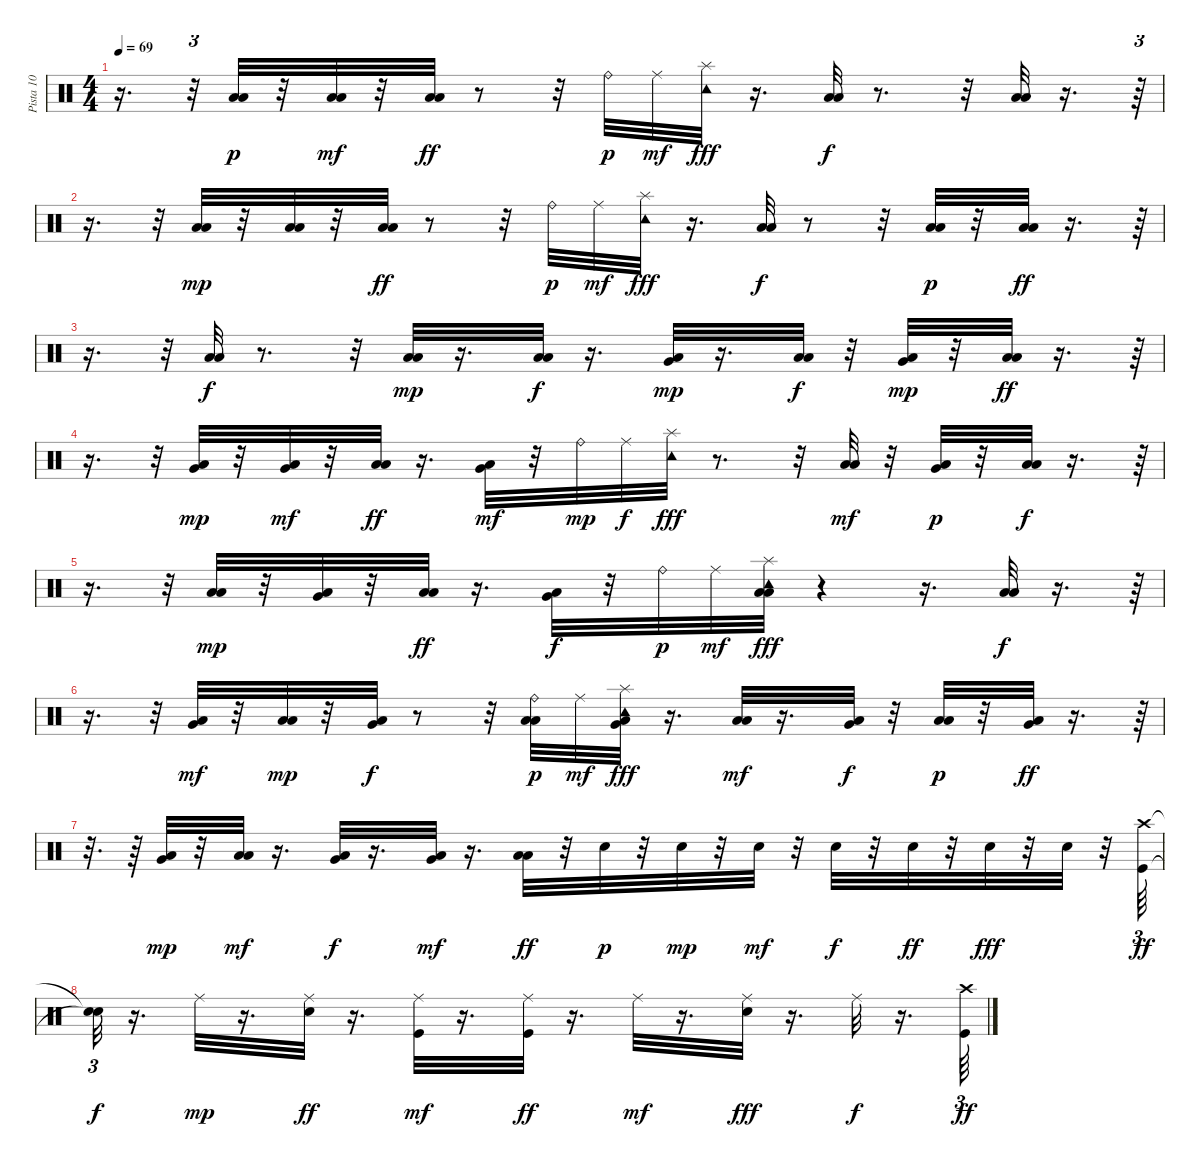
\track ("Pista 10" "Pista 10") {instrument percussion}
\staff {score}
\articulation defaults
\ts (4 4)
\tempo 69
\clef neutral
\ks c
r.16{d dy f} r.32{tu (3 2)} ("Low Floor Tom (hit)" "Low Tom (hit)").32{dy p} r.32 ("Low Floor Tom (hit)" "Low Tom (hit)").32{dy mf} r.32 ("Low Tom (hit)" "Low Floor Tom (hit)").32{dy ff} r.8 r.32 "Ride (bell)".32{dy p} "Ride (middle)".32{dy mf} ("Splash (hit)" "Tambourine (hit)").32{dy fff} r.16{d} ("Low Floor Tom (hit)" "Low Tom (hit)").32{dy f} r.8{d} r.32 ("Low Tom (hit)" "Low Floor Tom (hit)").32 r.16{d} r.64{tu (3 2)} |
r.16{d} r.32{tu (3 2)} ("Low Floor Tom (hit)" "Low Tom (hit)").32{dy mp} r.32 ("Low Floor Tom (hit)" "Low Tom (hit)").32 r.32 ("Low Tom (hit)" "Low Floor Tom (hit)").32{dy ff} r.8 r.32 "Ride (bell)".32{dy p} "Ride (middle)".32{dy mf} ("Splash (hit)" "Tambourine (hit)").32{dy fff} r.16{d} ("Low Floor Tom (hit)" "Low Tom (hit)").32{dy f} r.8 r.32 ("Low Tom (hit)" "Low Floor Tom (hit)").32{dy p} r.32 ("Low Tom (hit)" "Low Floor Tom (hit)").32{dy ff} r.16{d} r.64{tu (3 2)} |
r.16{d} r.32{tu (3 2)} ("Low Tom (hit)" "Low Floor Tom (hit)").32{dy f} r.8{d} r.32 ("Low Floor Tom (hit)" "Low Tom (hit)").32{dy mp} r.16{d} ("Low Floor Tom (hit)" "Low Tom (hit)").32{dy f} r.16{d} ("Very Low Tom (hit)" "Low Floor Tom (hit)").32{dy mp} r.16{d} ("Low Floor Tom (hit)" "Low Tom (hit)").32{dy f} r.32 ("Very Low Tom (hit)" "Low Floor Tom (hit)").32{dy mp} r.32 ("Low Tom (hit)" "Low Floor Tom (hit)").32{dy ff} r.16{d} r.64{tu (3 2)} |
r.16{d} r.32{tu (3 2)} ("Low Floor Tom (hit)" "Very Low Tom (hit)").32{dy mp} r.32 ("Low Floor Tom (hit)" "Very Low Tom (hit)").32{dy mf} r.32 ("Low Tom (hit)" "Low Floor Tom (hit)").32{dy ff} r.16{d} ("Low Floor Tom (hit)" "Very Low Tom (hit)").32{dy mf} r.32 "Ride (bell)".32{dy mp} "Ride (middle)".32{dy f} ("Splash (hit)" "Tambourine (hit)").32{dy fff} r.8{d} r.32 ("Low Tom (hit)" "Low Floor Tom (hit)").32{dy mf} r.32 ("Low Floor Tom (hit)" "Very Low Tom (hit)").32{dy p} r.32 ("Low Floor Tom (hit)" "Low Tom (hit)").32{dy f} r.16{d} r.64{tu (3 2)} |
r.16{d} r.32{tu (3 2)} ("Low Tom (hit)" "Low Floor Tom (hit)").32{dy mp} r.32 ("Low Floor Tom (hit)" "Very Low Tom (hit)").32 r.32 ("Low Tom (hit)" "Low Floor Tom (hit)").32{dy ff} r.16{d} ("Very Low Tom (hit)" "Low Floor Tom (hit)").32{dy f} r.32 "Ride (bell)".32{dy p} "Ride (middle)".32{dy mf} ("Splash (hit)" "Low Tom (hit)" "Low Floor Tom (hit)" "Tambourine (hit)").32{dy fff} r.4 r.16{d} ("Low Tom (hit)" "Low Floor Tom (hit)").32{dy f} r.16{d} r.64{tu (3 2)} |
r.16{d} r.32{tu (3 2)} ("Very Low Tom (hit)" "Low Tom (hit)").32{dy mf} r.32 ("Low Floor Tom (hit)" "Low Tom (hit)").32{dy mp} r.32 ("Low Tom (hit)" "Very Low Tom (hit)").32{dy f} r.8 r.32 ("Low Tom (hit)" "Low Floor Tom (hit)" "Ride (bell)").32{dy p} "Ride (middle)".32{dy mf} ("Splash (hit)" "Low Tom (hit)" "Very Low Tom (hit)" "Tambourine (hit)").32{dy fff} r.16{d} ("Low Floor Tom (hit)" "Low Tom (hit)").32{dy mf} r.16{d} ("Low Tom (hit)" "Very Low Tom (hit)").32{dy f} r.32 ("Low Tom (hit)" "Low Floor Tom (hit)").32{dy p} r.32 ("Low Tom (hit)" "Very Low Tom (hit)").32{dy ff} r.16{d} r.64{tu (3 2)} |
r.32{d} r.64 ("Very Low Tom (hit)" "Low Tom (hit)").32{dy mp} r.32 ("Low Tom (hit)" "Low Floor Tom (hit)").32{dy mf} r.16{d} ("Low Tom (hit)" "Very Low Tom (hit)").32{dy f} r.16{d} ("Low Tom (hit)" "Very Low Tom (hit)").32{dy mf} r.16{d} ("Low Tom (hit)" "Low Floor Tom (hit)").32{dy ff} r.32 "Snare (hit) 2".32{dy p} r.32 "Snare (hit) 2".32{dy mp} r.32 "Snare (hit) 2".32{dy mf} r.32 "Snare (hit) 2".32{dy f} r.32 "Snare (hit) 2".32{dy ff} r.32 "Snare (hit) 2".32{dy fff} r.32 "Snare (hit) 2".32 r.32 ("Crash high (hit)" "Kick (hit)").64{tu (3 2) dy ff} |
("Snare (hit)"{t} "Snare (hit)"{t}).32{tu (3 2) dy f} r.16{d} "Ride (middle)".32{dy mp} r.16{d} ("Snare (hit) 2" "Ride (middle)").32{dy ff} r.16{d} ("Ride (middle)" "Kick (hit)").32{dy mf} r.16{d} ("Ride (middle)" "Kick (hit)").32{dy ff} r.16{d} "Ride (middle)".32{dy mf} r.16{d} ("Ride (middle)" "Snare (hit) 2").32{dy fff} r.16{d} "Ride (middle)".32{dy f} r.16{d} ("Crash high (hit)" "Kick (hit)").64{tu (3 2) dy ff}
